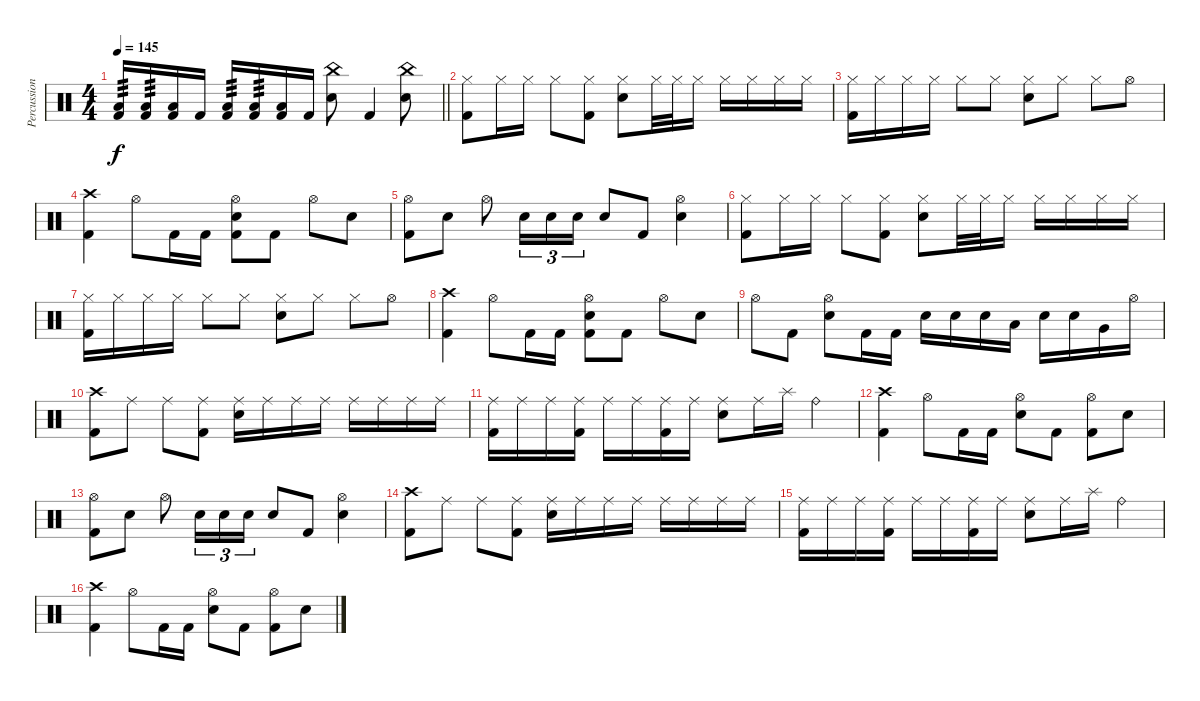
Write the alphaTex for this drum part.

\track ("Percussion" "Percussion") {instrument percussion}
\staff {score}
\articulation defaults
\ts (4 4)
\tempo 145
\clef neutral
\barLineRight lightlight
\ks c
("Low Floor Tom (hit)" "Kick (hit) 2").16{tp 3 dy f} ("Low Floor Tom (hit)" "Kick (hit) 2").16{tp 3} ("Low Floor Tom (hit)" "Kick (hit) 2").16 "Kick (hit) 2".16 ("Low Floor Tom (hit)" "Kick (hit) 2").16{tp 3} ("Low Floor Tom (hit)" "Kick (hit) 2").16{tp 3} ("Low Floor Tom (hit)" "Kick (hit) 2").16 "Kick (hit) 2".16 ("China (hit)" "Electric Snare (hit)").8 "Kick (hit) 2".4 ("China (hit)" "Electric Snare (hit)").8 |
\section ("" "")
("Hi-Hat (closed)" "Kick (hit) 2").8 "Hi-Hat (closed)".16 "Hi-Hat (closed)".16 "Hi-Hat (closed)".8 ("Hi-Hat (closed)" "Kick (hit) 2").8 ("Hi-Hat (closed)" "Electric Snare (hit)").8 "Hi-Hat (closed)".32 "Hi-Hat (closed)".32 "Hi-Hat (closed)".16 "Hi-Hat (closed)".16 "Hi-Hat (closed)".16 "Hi-Hat (closed)".16 "Hi-Hat (closed)".16 |
("Hi-Hat (closed)" "Kick (hit) 2").16 "Hi-Hat (closed)".16 "Hi-Hat (closed)".16 "Hi-Hat (closed)".16 "Hi-Hat (closed)".8 "Hi-Hat (closed)".8 ("Hi-Hat (closed)" "Electric Snare (hit)").8 "Hi-Hat (closed)".8 "Hi-Hat (closed)".8 "Hi-Hat (open)".8 |
("Crash high (hit)" "Kick (hit) 2").4 "Hi-Hat (open)".8 "Kick (hit) 2".16 "Kick (hit) 2".16 ("Hi-Hat (open)" "Electric Snare (hit)" "Kick (hit) 2").8 "Kick (hit) 2".8 "Hi-Hat (open)".8 "Electric Snare (hit)".8 |
("Hi-Hat (open)" "Kick (hit) 2").8 "Electric Snare (hit)".8 "Hi-Hat (open)".8 "Electric Snare (hit)".16{tu (3 2)} "Electric Snare (hit)".16{tu (3 2)} "Electric Snare (hit)".16{tu (3 2)} "Electric Snare (hit)".8 "Kick (hit) 2".8 ("Hi-Hat (open)" "Electric Snare (hit)").4 |
("Hi-Hat (closed)" "Kick (hit) 2").8 "Hi-Hat (closed)".16 "Hi-Hat (closed)".16 "Hi-Hat (closed)".8 ("Hi-Hat (closed)" "Kick (hit) 2").8 ("Hi-Hat (closed)" "Electric Snare (hit)").8 "Hi-Hat (closed)".32 "Hi-Hat (closed)".32 "Hi-Hat (closed)".16 "Hi-Hat (closed)".16 "Hi-Hat (closed)".16 "Hi-Hat (closed)".16 "Hi-Hat (closed)".16 |
("Hi-Hat (closed)" "Kick (hit) 2").16 "Hi-Hat (closed)".16 "Hi-Hat (closed)".16 "Hi-Hat (closed)".16 "Hi-Hat (closed)".8 "Hi-Hat (closed)".8 ("Hi-Hat (closed)" "Electric Snare (hit)").8 "Hi-Hat (closed)".8 "Hi-Hat (closed)".8 "Hi-Hat (open)".8 |
("Crash high (hit)" "Kick (hit) 2").4 "Hi-Hat (open)".8 "Kick (hit) 2".16 "Kick (hit) 2".16 ("Hi-Hat (open)" "Electric Snare (hit)" "Kick (hit) 2").8 "Kick (hit) 2".8 "Hi-Hat (open)".8 "Electric Snare (hit)".8 |
"Hi-Hat (open)".8 "Kick (hit) 2".8 ("Hi-Hat (open)" "Electric Snare (hit)").8 "Kick (hit) 2".16 "Kick (hit) 2".16 "Electric Snare (hit)".16 "Electric Snare (hit)".16 "Electric Snare (hit)".16 "Low Tom (hit)".16 "Electric Snare (hit)".16 "Electric Snare (hit)".16 "Very Low Tom (hit)".16 "Hi-Hat (open)".16 |
("Crash high (hit)" "Kick (hit) 2").8 "Ride (middle)".8 "Ride (middle)".8 ("Ride (middle)" "Kick (hit) 2").8 ("Ride (middle)" "Electric Snare (hit)").16 "Ride (middle)".16 "Ride (middle)".16 "Ride (middle)".16 "Ride (middle)".16 "Ride (middle)".16 "Ride (middle)".16 "Ride (middle)".16 |
("Ride (middle)" "Kick (hit) 2").16 "Ride (middle)".16 "Ride (middle)".16 ("Ride (middle)" "Kick (hit) 2").16 "Ride (middle)".16 "Ride (middle)".16 ("Ride (middle)" "Kick (hit) 2").16 "Ride (middle)".16 ("Ride (middle)" "Electric Snare (hit)").8 "Ride (middle)".16 "Splash (hit)".16 "Ride (bell)".4 |
("Crash high (hit)" "Kick (hit) 2").4 "Hi-Hat (open)".8 "Kick (hit) 2".16 "Kick (hit) 2".16 ("Hi-Hat (open)" "Electric Snare (hit)").8 "Kick (hit) 2".8 ("Hi-Hat (open)" "Kick (hit) 2").8 "Electric Snare (hit)".8 |
("Hi-Hat (open)" "Kick (hit) 2").8 "Electric Snare (hit)".8 "Hi-Hat (open)".8 "Electric Snare (hit)".16{tu (3 2)} "Electric Snare (hit)".16{tu (3 2)} "Electric Snare (hit)".16{tu (3 2)} "Electric Snare (hit)".8 "Kick (hit) 2".8 ("Hi-Hat (open)" "Electric Snare (hit)").4 |
("Crash high (hit)" "Kick (hit) 2").8 "Ride (middle)".8 "Ride (middle)".8 ("Ride (middle)" "Kick (hit) 2").8 ("Ride (middle)" "Electric Snare (hit)").16 "Ride (middle)".16 "Ride (middle)".16 "Ride (middle)".16 "Ride (middle)".16 "Ride (middle)".16 "Ride (middle)".16 "Ride (middle)".16 |
("Ride (middle)" "Kick (hit) 2").16 "Ride (middle)".16 "Ride (middle)".16 ("Ride (middle)" "Kick (hit) 2").16 "Ride (middle)".16 "Ride (middle)".16 ("Ride (middle)" "Kick (hit) 2").16 "Ride (middle)".16 ("Ride (middle)" "Electric Snare (hit)").8 "Ride (middle)".16 "Splash (hit)".16 "Ride (bell)".4 |
("Crash high (hit)" "Kick (hit) 2").4 "Hi-Hat (open)".8 "Kick (hit) 2".16 "Kick (hit) 2".16 ("Hi-Hat (open)" "Electric Snare (hit)").8 "Kick (hit) 2".8 ("Hi-Hat (open)" "Kick (hit) 2").8 "Electric Snare (hit)".8
